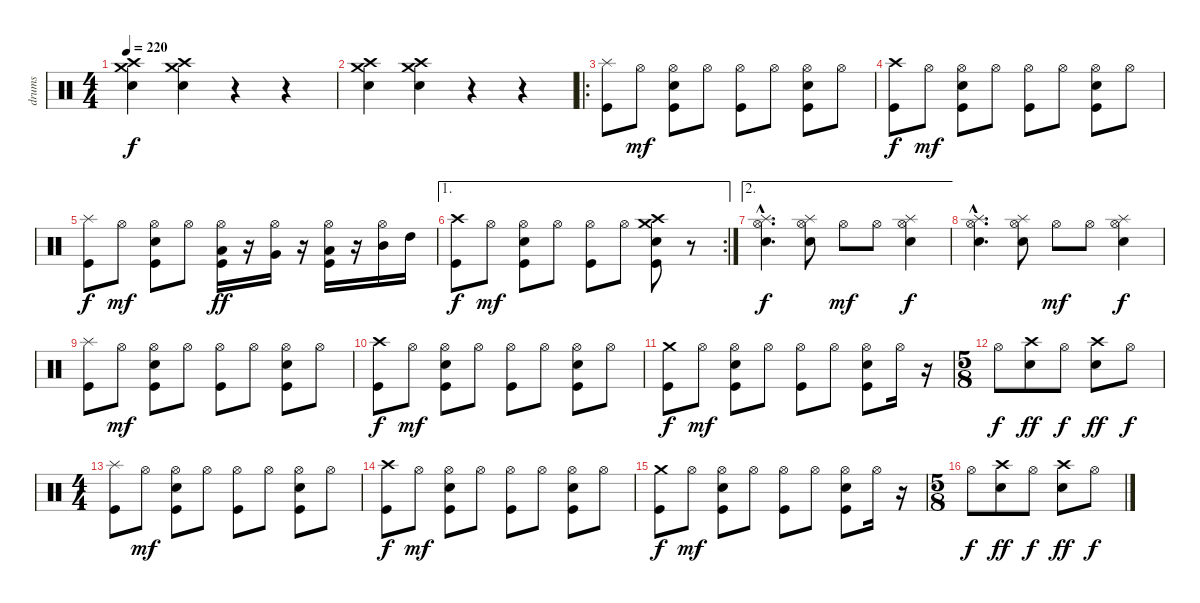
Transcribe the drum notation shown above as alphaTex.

\track ("drums" "drums") {instrument percussion}
\staff {score}
\articulation defaults
\ts (4 4)
\tempo 220
\clef neutral
\ks c
("Crash medium (hit)" "Crash high (hit)" "Electric Snare (hit)").4{dy f} ("Crash medium (hit)" "Crash high (hit)" "Electric Snare (hit)").4 r.4 r.4 |
("Crash medium (hit)" "Crash high (hit)" "Electric Snare (hit)").4 ("Crash medium (hit)" "Crash high (hit)" "Electric Snare (hit)").4 r.4 r.4 |
\ro
("Splash (hit)" "Kick (hit)").8 "Hi-Hat (open)".8{dy mf} ("Hi-Hat (open)" "Electric Snare (hit)" "Kick (hit)").8 "Hi-Hat (open)".8 ("Hi-Hat (open)" "Kick (hit)").8 "Hi-Hat (open)".8 ("Hi-Hat (open)" "Electric Snare (hit)" "Kick (hit)").8 "Hi-Hat (open)".8 |
("Crash high (hit)" "Kick (hit)").8{dy f} "Hi-Hat (open)".8{dy mf} ("Hi-Hat (open)" "Electric Snare (hit)" "Kick (hit)").8 "Hi-Hat (open)".8 ("Hi-Hat (open)" "Kick (hit)").8 "Hi-Hat (open)".8 ("Hi-Hat (open)" "Electric Snare (hit)" "Kick (hit)").8 "Hi-Hat (open)".8 |
("Splash (hit)" "Kick (hit)").8{dy f} "Hi-Hat (open)".8{dy mf} ("Hi-Hat (open)" "Electric Snare (hit)" "Kick (hit)").8 "Hi-Hat (open)".8 ("Hi-Hat (open)" "Low Floor Tom (hit)" "Kick (hit)").16{dy ff} r.16 ("Hi-Hat (open)" "Very Low Tom (hit)").16 r.16 ("Hi-Hat (open)" "Low Tom (hit)" "Kick (hit)").16 r.16 ("Hi-Hat (open)" "Mid Tom (hit)").16 "High Tom (hit)".16 |
\ae 1
\rc 2
("Crash high (hit)" "Kick (hit)").8{dy f} "Hi-Hat (open)".8{dy mf} ("Hi-Hat (open)" "Snare (hit) 2" "Kick (hit)").8 "Hi-Hat (open)".8 ("Hi-Hat (open)" "Kick (hit)").8 "Hi-Hat (open)".8 ("Crash high (hit)" "Crash medium (hit)" "Snare (hit) 2" "Kick (hit)").8 r.8 |
\ae 2
("Splash (hit)"{hac} "Hi-Hat (open)"{hac} "Snare (hit) 2"{hac}).4{d dy f} ("Splash (hit)" "Hi-Hat (open)" "Snare (hit) 2").8 "Hi-Hat (open)".8{dy mf} "Hi-Hat (open)".8 ("Splash (hit)" "Hi-Hat (open)" "Snare (hit) 2").4{dy f} |
("Splash (hit)"{hac} "Hi-Hat (open)"{hac} "Snare (hit) 2"{hac}).4{d} ("Splash (hit)" "Hi-Hat (open)" "Snare (hit) 2").8 "Hi-Hat (open)".8{dy mf} "Hi-Hat (open)".8 ("Splash (hit)" "Hi-Hat (open)" "Snare (hit) 2").4{dy f} |
("Splash (hit)" "Kick (hit)").8 "Hi-Hat (open)".8{dy mf} ("Hi-Hat (open)" "Snare (hit) 2" "Kick (hit)").8 "Hi-Hat (open)".8 ("Hi-Hat (open)" "Kick (hit)").8 "Hi-Hat (open)".8 ("Hi-Hat (open)" "Snare (hit) 2" "Kick (hit)").8 "Hi-Hat (open)".8 |
("Crash high (hit)" "Kick (hit)").8{dy f} "Hi-Hat (open)".8{dy mf} ("Hi-Hat (open)" "Snare (hit) 2" "Kick (hit)").8 "Hi-Hat (open)".8 ("Hi-Hat (open)" "Kick (hit)").8 "Hi-Hat (open)".8 ("Hi-Hat (open)" "Snare (hit) 2" "Kick (hit)").8 "Hi-Hat (open)".8 |
("Crash medium (hit)" "Kick (hit)").8{dy f} "Hi-Hat (open)".8{dy mf} ("Hi-Hat (open)" "Snare (hit) 2" "Kick (hit)").8 "Hi-Hat (open)".8 ("Hi-Hat (open)" "Kick (hit)").8 "Hi-Hat (open)".8 ("Hi-Hat (open)" "Snare (hit) 2" "Kick (hit)").8 "Hi-Hat (open)".16 r.16 |
\ts (5 8)
"Hi-Hat (open)".8{dy f} ("Crash high (hit)" "Snare (hit) 2").8{dy ff} "Hi-Hat (open)".8{dy f} ("Crash high (hit)" "Snare (hit) 2").8{dy ff} "Hi-Hat (open)".8{dy f} |
\ts (4 4)
("Splash (hit)" "Kick (hit)").8 "Hi-Hat (open)".8{dy mf} ("Hi-Hat (open)" "Snare (hit) 2" "Kick (hit)").8 "Hi-Hat (open)".8 ("Hi-Hat (open)" "Kick (hit)").8 "Hi-Hat (open)".8 ("Hi-Hat (open)" "Snare (hit) 2" "Kick (hit)").8 "Hi-Hat (open)".8 |
("Crash high (hit)" "Kick (hit)").8{dy f} "Hi-Hat (open)".8{dy mf} ("Hi-Hat (open)" "Snare (hit) 2" "Kick (hit)").8 "Hi-Hat (open)".8 ("Hi-Hat (open)" "Kick (hit)").8 "Hi-Hat (open)".8 ("Hi-Hat (open)" "Snare (hit) 2" "Kick (hit)").8 "Hi-Hat (open)".8 |
("Crash medium (hit)" "Kick (hit)").8{dy f} "Hi-Hat (open)".8{dy mf} ("Hi-Hat (open)" "Snare (hit) 2" "Kick (hit)").8 "Hi-Hat (open)".8 ("Hi-Hat (open)" "Kick (hit)").8 "Hi-Hat (open)".8 ("Hi-Hat (open)" "Snare (hit) 2" "Kick (hit)").8 "Hi-Hat (open)".16 r.16 |
\ts (5 8)
"Hi-Hat (open)".8{dy f} ("Crash high (hit)" "Snare (hit) 2").8{dy ff} "Hi-Hat (open)".8{dy f} ("Crash high (hit)" "Snare (hit) 2").8{dy ff} "Hi-Hat (open)".8{dy f}
